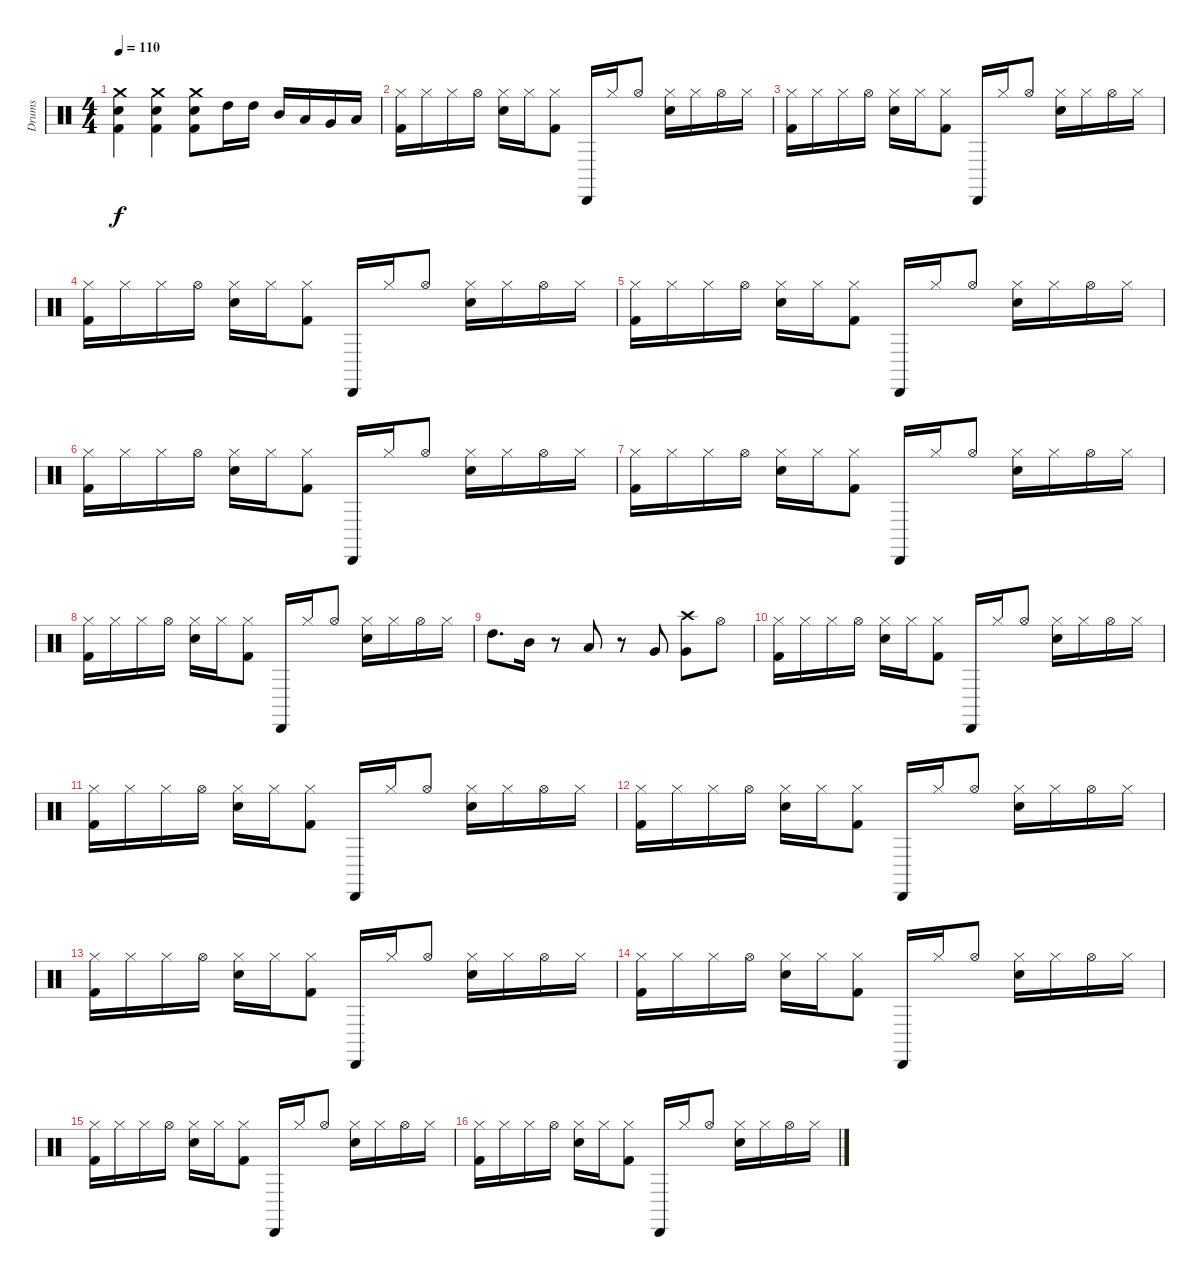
\track ("Drums" "Drums") {instrument percussion}
\staff {score}
\articulation defaults
\ts (4 4)
\tempo 110
\clef neutral
\ks c
("Kick (hit) 2" "Electric Snare (hit)" "Crash medium (hit)").4{dy f} ("Kick (hit) 2" "Electric Snare (hit)" "Crash medium (hit)").4 ("Kick (hit) 2" "Electric Snare (hit)" "Crash medium (hit)").8 "High Tom (hit)".16 "High Tom (hit)".16 "Mid Tom (hit)".16 "Low Tom (hit)".16 "Very Low Tom (hit)".16 "Low Floor Tom (hit)".16 |
("Kick (hit) 2" "Hi-Hat (closed)").16 "Hi-Hat (closed)".16 "Hi-Hat (closed)".16 "Hi-Hat (open)".16 ("Snare (hit) 2" "Hi-Hat (closed)").16 "Hi-Hat (closed)".16 ("Kick (hit) 2" "Hi-Hat (closed)").8 "Cabasa (hit)".16 "Hi-Hat (closed)".16 "Hi-Hat (open)".8 ("Snare (hit) 2" "Hi-Hat (closed)").16 "Hi-Hat (closed)".16 "Hi-Hat (open)".16 "Hi-Hat (closed)".16 |
("Kick (hit) 2" "Hi-Hat (closed)").16 "Hi-Hat (closed)".16 "Hi-Hat (closed)".16 "Hi-Hat (open)".16 ("Snare (hit) 2" "Hi-Hat (closed)").16 "Hi-Hat (closed)".16 ("Kick (hit) 2" "Hi-Hat (closed)").8 "Cabasa (hit)".16 "Hi-Hat (closed)".16 "Hi-Hat (open)".8 ("Snare (hit) 2" "Hi-Hat (closed)").16 "Hi-Hat (closed)".16 "Hi-Hat (open)".16 "Hi-Hat (closed)".16 |
("Kick (hit) 2" "Hi-Hat (closed)").16 "Hi-Hat (closed)".16 "Hi-Hat (closed)".16 "Hi-Hat (open)".16 ("Snare (hit) 2" "Hi-Hat (closed)").16 "Hi-Hat (closed)".16 ("Kick (hit) 2" "Hi-Hat (closed)").8 "Cabasa (hit)".16 "Hi-Hat (closed)".16 "Hi-Hat (open)".8 ("Snare (hit) 2" "Hi-Hat (closed)").16 "Hi-Hat (closed)".16 "Hi-Hat (open)".16 "Hi-Hat (closed)".16 |
("Kick (hit) 2" "Hi-Hat (closed)").16 "Hi-Hat (closed)".16 "Hi-Hat (closed)".16 "Hi-Hat (open)".16 ("Snare (hit) 2" "Hi-Hat (closed)").16 "Hi-Hat (closed)".16 ("Kick (hit) 2" "Hi-Hat (closed)").8 "Cabasa (hit)".16 "Hi-Hat (closed)".16 "Hi-Hat (open)".8 ("Snare (hit) 2" "Hi-Hat (closed)").16 "Hi-Hat (closed)".16 "Hi-Hat (open)".16 "Hi-Hat (closed)".16 |
("Kick (hit) 2" "Hi-Hat (closed)").16 "Hi-Hat (closed)".16 "Hi-Hat (closed)".16 "Hi-Hat (open)".16 ("Snare (hit) 2" "Hi-Hat (closed)").16 "Hi-Hat (closed)".16 ("Kick (hit) 2" "Hi-Hat (closed)").8 "Cabasa (hit)".16 "Hi-Hat (closed)".16 "Hi-Hat (open)".8 ("Snare (hit) 2" "Hi-Hat (closed)").16 "Hi-Hat (closed)".16 "Hi-Hat (open)".16 "Hi-Hat (closed)".16 |
("Kick (hit) 2" "Hi-Hat (closed)").16 "Hi-Hat (closed)".16 "Hi-Hat (closed)".16 "Hi-Hat (open)".16 ("Snare (hit) 2" "Hi-Hat (closed)").16 "Hi-Hat (closed)".16 ("Kick (hit) 2" "Hi-Hat (closed)").8 "Cabasa (hit)".16 "Hi-Hat (closed)".16 "Hi-Hat (open)".8 ("Snare (hit) 2" "Hi-Hat (closed)").16 "Hi-Hat (closed)".16 "Hi-Hat (open)".16 "Hi-Hat (closed)".16 |
("Kick (hit) 2" "Hi-Hat (closed)").16 "Hi-Hat (closed)".16 "Hi-Hat (closed)".16 "Hi-Hat (open)".16 ("Snare (hit) 2" "Hi-Hat (closed)").16 "Hi-Hat (closed)".16 ("Kick (hit) 2" "Hi-Hat (closed)").8 "Cabasa (hit)".16 "Hi-Hat (closed)".16 "Hi-Hat (open)".8 ("Snare (hit) 2" "Hi-Hat (closed)").16 "Hi-Hat (closed)".16 "Hi-Hat (open)".16 "Hi-Hat (closed)".16 |
"High Tom (hit)".8{d} "Mid Tom (hit)".16 r.8 "Low Tom (hit)".8 r.8 "Very Low Tom (hit)".8 ("Very Low Tom (hit)" "Crash high (hit)").8 "Hi-Hat (open)".8 |
("Kick (hit) 2" "Hi-Hat (closed)").16 "Hi-Hat (closed)".16 "Hi-Hat (closed)".16 "Hi-Hat (open)".16 ("Snare (hit) 2" "Hi-Hat (closed)").16 "Hi-Hat (closed)".16 ("Kick (hit) 2" "Hi-Hat (closed)").8 "Cabasa (hit)".16 "Hi-Hat (closed)".16 "Hi-Hat (open)".8 ("Snare (hit) 2" "Hi-Hat (closed)").16 "Hi-Hat (closed)".16 "Hi-Hat (open)".16 "Hi-Hat (closed)".16 |
("Kick (hit) 2" "Hi-Hat (closed)").16 "Hi-Hat (closed)".16 "Hi-Hat (closed)".16 "Hi-Hat (open)".16 ("Snare (hit) 2" "Hi-Hat (closed)").16 "Hi-Hat (closed)".16 ("Kick (hit) 2" "Hi-Hat (closed)").8 "Cabasa (hit)".16 "Hi-Hat (closed)".16 "Hi-Hat (open)".8 ("Snare (hit) 2" "Hi-Hat (closed)").16 "Hi-Hat (closed)".16 "Hi-Hat (open)".16 "Hi-Hat (closed)".16 |
("Kick (hit) 2" "Hi-Hat (closed)").16 "Hi-Hat (closed)".16 "Hi-Hat (closed)".16 "Hi-Hat (open)".16 ("Snare (hit) 2" "Hi-Hat (closed)").16 "Hi-Hat (closed)".16 ("Kick (hit) 2" "Hi-Hat (closed)").8 "Cabasa (hit)".16 "Hi-Hat (closed)".16 "Hi-Hat (open)".8 ("Snare (hit) 2" "Hi-Hat (closed)").16 "Hi-Hat (closed)".16 "Hi-Hat (open)".16 "Hi-Hat (closed)".16 |
("Kick (hit) 2" "Hi-Hat (closed)").16 "Hi-Hat (closed)".16 "Hi-Hat (closed)".16 "Hi-Hat (open)".16 ("Snare (hit) 2" "Hi-Hat (closed)").16 "Hi-Hat (closed)".16 ("Kick (hit) 2" "Hi-Hat (closed)").8 "Cabasa (hit)".16 "Hi-Hat (closed)".16 "Hi-Hat (open)".8 ("Snare (hit) 2" "Hi-Hat (closed)").16 "Hi-Hat (closed)".16 "Hi-Hat (open)".16 "Hi-Hat (closed)".16 |
("Kick (hit) 2" "Hi-Hat (closed)").16 "Hi-Hat (closed)".16 "Hi-Hat (closed)".16 "Hi-Hat (open)".16 ("Snare (hit) 2" "Hi-Hat (closed)").16 "Hi-Hat (closed)".16 ("Kick (hit) 2" "Hi-Hat (closed)").8 "Cabasa (hit)".16 "Hi-Hat (closed)".16 "Hi-Hat (open)".8 ("Snare (hit) 2" "Hi-Hat (closed)").16 "Hi-Hat (closed)".16 "Hi-Hat (open)".16 "Hi-Hat (closed)".16 |
("Kick (hit) 2" "Hi-Hat (closed)").16 "Hi-Hat (closed)".16 "Hi-Hat (closed)".16 "Hi-Hat (open)".16 ("Snare (hit) 2" "Hi-Hat (closed)").16 "Hi-Hat (closed)".16 ("Kick (hit) 2" "Hi-Hat (closed)").8 "Cabasa (hit)".16 "Hi-Hat (closed)".16 "Hi-Hat (open)".8 ("Snare (hit) 2" "Hi-Hat (closed)").16 "Hi-Hat (closed)".16 "Hi-Hat (open)".16 "Hi-Hat (closed)".16 |
("Kick (hit) 2" "Hi-Hat (closed)").16 "Hi-Hat (closed)".16 "Hi-Hat (closed)".16 "Hi-Hat (open)".16 ("Snare (hit) 2" "Hi-Hat (closed)").16 "Hi-Hat (closed)".16 ("Kick (hit) 2" "Hi-Hat (closed)").8 "Cabasa (hit)".16 "Hi-Hat (closed)".16 "Hi-Hat (open)".8 ("Snare (hit) 2" "Hi-Hat (closed)").16 "Hi-Hat (closed)".16 "Hi-Hat (open)".16 "Hi-Hat (closed)".16
